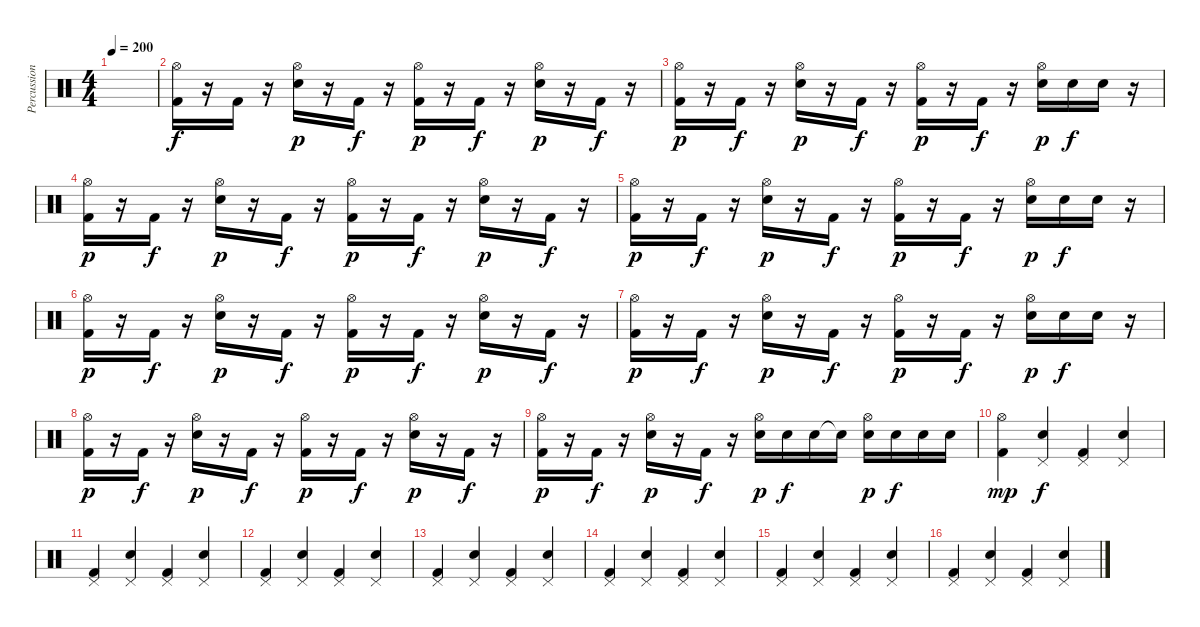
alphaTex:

\track ("Percussion" "Percussion") {instrument percussion}
\staff {score}
\articulation defaults
\ts (4 4)
\tempo 200
\clef neutral
\ks c
|
("Kick (hit) 2" "Hi-Hat (open)").16{volume 13} r.16 "Kick (hit) 2".16{dy f} r.16 ("Electric Snare (hit)" "Hi-Hat (open)").16{dy p} r.16 "Kick (hit) 2".16{dy f} r.16 ("Kick (hit) 2" "Hi-Hat (open)").16{dy p} r.16 "Kick (hit) 2".16{dy f} r.16 ("Electric Snare (hit)" "Hi-Hat (open)").16{dy p} r.16 "Kick (hit) 2".16{dy f} r.16 |
("Kick (hit) 2" "Hi-Hat (open)").16{dy p} r.16 "Kick (hit) 2".16{dy f} r.16 ("Electric Snare (hit)" "Hi-Hat (open)").16{dy p} r.16 "Kick (hit) 2".16{dy f} r.16 ("Kick (hit) 2" "Hi-Hat (open)").16{dy p} r.16 "Kick (hit) 2".16{dy f} r.16 ("Electric Snare (hit)" "Hi-Hat (open)").16{dy p} "Electric Snare (hit)".16{dy f} "Electric Snare (hit)".16 r.16 |
("Kick (hit) 2" "Hi-Hat (open)").16{dy p} r.16 "Kick (hit) 2".16{dy f} r.16 ("Electric Snare (hit)" "Hi-Hat (open)").16{dy p} r.16 "Kick (hit) 2".16{dy f} r.16 ("Kick (hit) 2" "Hi-Hat (open)").16{dy p} r.16 "Kick (hit) 2".16{dy f} r.16 ("Electric Snare (hit)" "Hi-Hat (open)").16{dy p} r.16 "Kick (hit) 2".16{dy f} r.16 |
("Kick (hit) 2" "Hi-Hat (open)").16{dy p} r.16 "Kick (hit) 2".16{dy f} r.16 ("Electric Snare (hit)" "Hi-Hat (open)").16{dy p} r.16 "Kick (hit) 2".16{dy f} r.16 ("Kick (hit) 2" "Hi-Hat (open)").16{dy p} r.16 "Kick (hit) 2".16{dy f} r.16 ("Electric Snare (hit)" "Hi-Hat (open)").16{dy p} "Electric Snare (hit)".16{dy f} "Electric Snare (hit)".16 r.16 |
("Kick (hit) 2" "Hi-Hat (open)").16{dy p} r.16 "Kick (hit) 2".16{dy f} r.16 ("Electric Snare (hit)" "Hi-Hat (open)").16{dy p} r.16 "Kick (hit) 2".16{dy f} r.16 ("Kick (hit) 2" "Hi-Hat (open)").16{dy p} r.16 "Kick (hit) 2".16{dy f} r.16 ("Electric Snare (hit)" "Hi-Hat (open)").16{dy p} r.16 "Kick (hit) 2".16{dy f} r.16 |
("Kick (hit) 2" "Hi-Hat (open)").16{dy p} r.16 "Kick (hit) 2".16{dy f} r.16 ("Electric Snare (hit)" "Hi-Hat (open)").16{dy p} r.16 "Kick (hit) 2".16{dy f} r.16 ("Kick (hit) 2" "Hi-Hat (open)").16{dy p} r.16 "Kick (hit) 2".16{dy f} r.16 ("Electric Snare (hit)" "Hi-Hat (open)").16{dy p} "Electric Snare (hit)".16{dy f} "Electric Snare (hit)".16 r.16 |
("Kick (hit) 2" "Hi-Hat (open)").16{dy p} r.16 "Kick (hit) 2".16{dy f} r.16 ("Electric Snare (hit)" "Hi-Hat (open)").16{dy p} r.16 "Kick (hit) 2".16{dy f} r.16 ("Kick (hit) 2" "Hi-Hat (open)").16{dy p} r.16 "Kick (hit) 2".16{dy f} r.16 ("Electric Snare (hit)" "Hi-Hat (open)").16{dy p} r.16 "Kick (hit) 2".16{dy f} r.16 |
("Kick (hit) 2" "Hi-Hat (open)").16{dy p} r.16 "Kick (hit) 2".16{dy f} r.16 ("Electric Snare (hit)" "Hi-Hat (open)").16{dy p} r.16 "Kick (hit) 2".16{dy f} r.16 ("Electric Snare (hit)" "Hi-Hat (open)").16{dy p} "Electric Snare (hit)".16{dy f} "Electric Snare (hit)".16 "Electric Snare (hit)"{t}.16 ("Electric Snare (hit)" "Hi-Hat (open)").16{dy p} "Electric Snare (hit)".16{dy f} "Electric Snare (hit)".16 "Electric Snare (hit)".16 |
("Kick (hit) 2" "Hi-Hat (open)").4{dy mp} ("Electric Snare (hit)" "Pedal Hi-Hat (hit)").4{dy f} ("Kick (hit) 2" "Pedal Hi-Hat (hit)").4 ("Electric Snare (hit)" "Pedal Hi-Hat (hit)").4 |
("Kick (hit) 2" "Pedal Hi-Hat (hit)").4 ("Electric Snare (hit)" "Pedal Hi-Hat (hit)").4 ("Kick (hit) 2" "Pedal Hi-Hat (hit)").4 ("Electric Snare (hit)" "Pedal Hi-Hat (hit)").4 |
("Kick (hit) 2" "Pedal Hi-Hat (hit)").4 ("Electric Snare (hit)" "Pedal Hi-Hat (hit)").4 ("Kick (hit) 2" "Pedal Hi-Hat (hit)").4 ("Electric Snare (hit)" "Pedal Hi-Hat (hit)").4 |
("Kick (hit) 2" "Pedal Hi-Hat (hit)").4 ("Electric Snare (hit)" "Pedal Hi-Hat (hit)").4 ("Kick (hit) 2" "Pedal Hi-Hat (hit)").4 ("Electric Snare (hit)" "Pedal Hi-Hat (hit)").4 |
("Kick (hit) 2" "Pedal Hi-Hat (hit)").4 ("Electric Snare (hit)" "Pedal Hi-Hat (hit)").4 ("Kick (hit) 2" "Pedal Hi-Hat (hit)").4 ("Electric Snare (hit)" "Pedal Hi-Hat (hit)").4 |
("Kick (hit) 2" "Pedal Hi-Hat (hit)").4 ("Electric Snare (hit)" "Pedal Hi-Hat (hit)").4 ("Kick (hit) 2" "Pedal Hi-Hat (hit)").4 ("Electric Snare (hit)" "Pedal Hi-Hat (hit)").4 |
("Kick (hit) 2" "Pedal Hi-Hat (hit)").4 ("Electric Snare (hit)" "Pedal Hi-Hat (hit)").4 ("Kick (hit) 2" "Pedal Hi-Hat (hit)").4 ("Electric Snare (hit)" "Pedal Hi-Hat (hit)").4
